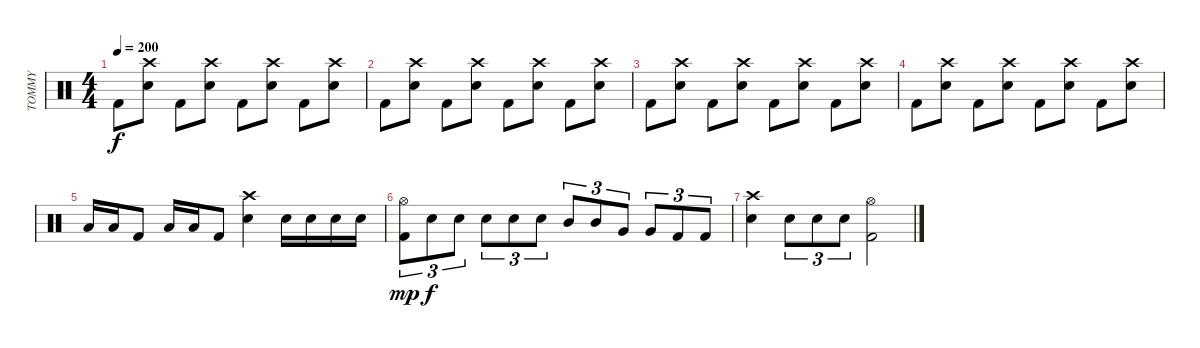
\track ("TOMMY" "TOMMY") {instrument percussion}
\staff {score}
\articulation defaults
\ts (4 4)
\tempo 200
\clef neutral
\ks c "Kick (hit) 2".8{dy f}
("Snare (hit) 2" "Crash high (hit)").8 "Kick (hit) 2".8 ("Snare (hit) 2" "Crash high (hit)").8 "Kick (hit) 2".8 ("Snare (hit) 2" "Crash high (hit)").8 "Kick (hit) 2".8 ("Snare (hit) 2" "Crash high (hit)").8 |
"Kick (hit) 2".8 ("Snare (hit) 2" "Crash high (hit)").8 "Kick (hit) 2".8 ("Snare (hit) 2" "Crash high (hit)").8 "Kick (hit) 2".8 ("Snare (hit) 2" "Crash high (hit)").8 "Kick (hit) 2".8 ("Snare (hit) 2" "Crash high (hit)").8 |
"Kick (hit) 2".8 ("Snare (hit) 2" "Crash high (hit)").8 "Kick (hit) 2".8 ("Snare (hit) 2" "Crash high (hit)").8 "Kick (hit) 2".8 ("Snare (hit) 2" "Crash high (hit)").8 "Kick (hit) 2".8 ("Snare (hit) 2" "Crash high (hit)").8 |
"Kick (hit) 2".8 ("Snare (hit) 2" "Crash high (hit)").8 "Kick (hit) 2".8 ("Snare (hit) 2" "Crash high (hit)").8 "Kick (hit) 2".8 ("Snare (hit) 2" "Crash high (hit)").8 "Kick (hit) 2".8 ("Snare (hit) 2" "Crash high (hit)").8 |
"Low Floor Tom (hit)".16 "Low Floor Tom (hit)".16 "Kick (hit) 2".8 "Low Floor Tom (hit)".16 "Low Floor Tom (hit)".16 "Kick (hit) 2".8 ("Snare (hit) 2" "Crash high (hit)").4 "Snare (hit) 2".16 "Snare (hit) 2".16 "Snare (hit) 2".16 "Snare (hit) 2".16 |
("Kick (hit) 2" "Hi-Hat (open)").8{tu (3 2) dy mp} "Snare (hit) 2".8{tu (3 2) dy f} "Snare (hit) 2".8{tu (3 2)} "Snare (hit) 2".8{tu (3 2)} "Snare (hit) 2".8{tu (3 2)} "Snare (hit) 2".8{tu (3 2)} "Mid Tom (hit)".8{tu (3 2)} "Mid Tom (hit)".8{tu (3 2)} "Very Low Tom (hit)".8{tu (3 2)} "Very Low Tom (hit)".8{tu (3 2)} "Kick (hit) 2".8{tu (3 2)} "Kick (hit) 2".8{tu (3 2)} |
("Snare (hit) 2" "Crash high (hit)").4 "Snare (hit) 2".8{tu (3 2)} "Snare (hit) 2".8{tu (3 2)} "Snare (hit) 2".8{tu (3 2)} ("Kick (hit) 2" "Hi-Hat (open)").2
